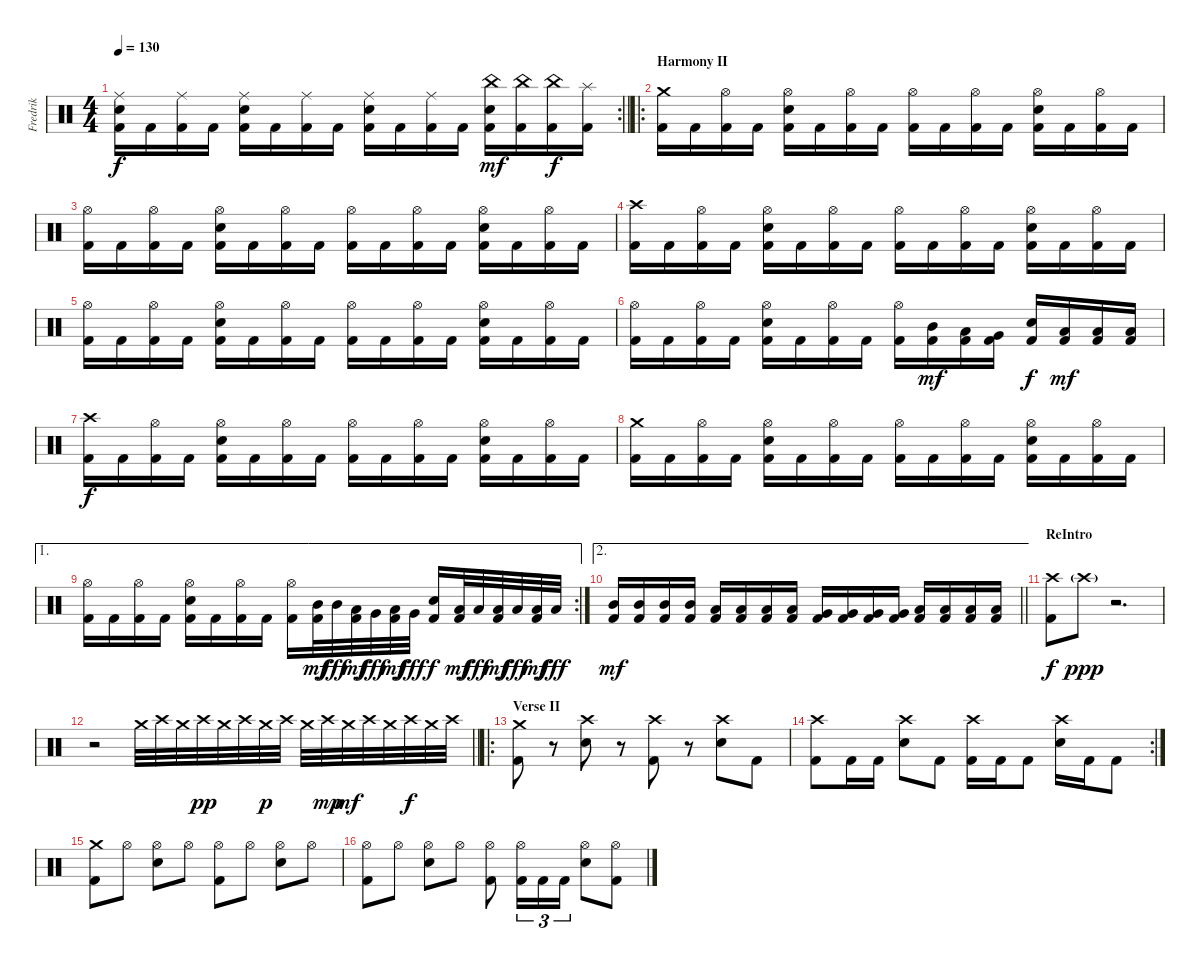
\track ("Fredrik" "Fredrik") {instrument percussion}
\staff {score}
\articulation defaults
\rc 2
\ts (4 4)
\tempo 130
\clef neutral
\barLineRight lightlight
\ks c
("Ride (middle)" "Electric Snare (hit)" "Kick (hit) 2").16{dy f} "Kick (hit) 2".16 ("Ride (middle)" "Kick (hit) 2").16 "Kick (hit) 2".16 ("Ride (middle)" "Electric Snare (hit)" "Kick (hit) 2").16 "Kick (hit) 2".16 ("Ride (middle)" "Kick (hit) 2").16 "Kick (hit) 2".16 ("Ride (middle)" "Electric Snare (hit)" "Kick (hit) 2").16 "Kick (hit) 2".16 ("Ride (middle)" "Kick (hit) 2").16 "Kick (hit) 2".16 ("China (hit)" "Electric Snare (hit)" "Kick (hit) 2").16{dy mf} ("China (hit)" "Kick (hit) 2").16 ("China (hit)" "Kick (hit) 2").16{dy f} ("Splash (hit)" "Kick (hit) 2").16 |
\ro
\section ("" "Harmony II")
("Crash medium (hit)" "Kick (hit) 2").16 "Kick (hit) 2".16 ("Hi-Hat (open)" "Kick (hit) 2").16 "Kick (hit) 2".16 ("Hi-Hat (open)" "Electric Snare (hit)" "Kick (hit) 2").16 "Kick (hit) 2".16 ("Hi-Hat (open)" "Kick (hit) 2").16 "Kick (hit) 2".16 ("Hi-Hat (open)" "Kick (hit) 2").16 "Kick (hit) 2".16 ("Hi-Hat (open)" "Kick (hit) 2").16 "Kick (hit) 2".16 ("Hi-Hat (open)" "Electric Snare (hit)" "Kick (hit) 2").16 "Kick (hit) 2".16 ("Hi-Hat (open)" "Kick (hit) 2").16 "Kick (hit) 2".16 |
("Hi-Hat (open)" "Kick (hit) 2").16 "Kick (hit) 2".16 ("Hi-Hat (open)" "Kick (hit) 2").16 "Kick (hit) 2".16 ("Hi-Hat (open)" "Electric Snare (hit)" "Kick (hit) 2").16 "Kick (hit) 2".16 ("Hi-Hat (open)" "Kick (hit) 2").16 "Kick (hit) 2".16 ("Hi-Hat (open)" "Kick (hit) 2").16 "Kick (hit) 2".16 ("Hi-Hat (open)" "Kick (hit) 2").16 "Kick (hit) 2".16 ("Hi-Hat (open)" "Electric Snare (hit)" "Kick (hit) 2").16 "Kick (hit) 2".16 ("Hi-Hat (open)" "Kick (hit) 2").16 "Kick (hit) 2".16 |
("Crash high (hit)" "Kick (hit) 2").16 "Kick (hit) 2".16 ("Hi-Hat (open)" "Kick (hit) 2").16 "Kick (hit) 2".16 ("Hi-Hat (open)" "Electric Snare (hit)" "Kick (hit) 2").16 "Kick (hit) 2".16 ("Hi-Hat (open)" "Kick (hit) 2").16 "Kick (hit) 2".16 ("Hi-Hat (open)" "Kick (hit) 2").16 "Kick (hit) 2".16 ("Hi-Hat (open)" "Kick (hit) 2").16 "Kick (hit) 2".16 ("Hi-Hat (open)" "Electric Snare (hit)" "Kick (hit) 2").16 "Kick (hit) 2".16 ("Hi-Hat (open)" "Kick (hit) 2").16 "Kick (hit) 2".16 |
("Hi-Hat (open)" "Kick (hit) 2").16 "Kick (hit) 2".16 ("Hi-Hat (open)" "Kick (hit) 2").16 "Kick (hit) 2".16 ("Hi-Hat (open)" "Electric Snare (hit)" "Kick (hit) 2").16 "Kick (hit) 2".16 ("Hi-Hat (open)" "Kick (hit) 2").16 "Kick (hit) 2".16 ("Hi-Hat (open)" "Kick (hit) 2").16 "Kick (hit) 2".16 ("Hi-Hat (open)" "Kick (hit) 2").16 "Kick (hit) 2".16 ("Hi-Hat (open)" "Electric Snare (hit)" "Kick (hit) 2").16 "Kick (hit) 2".16 ("Hi-Hat (open)" "Kick (hit) 2").16 "Kick (hit) 2".16 |
("Hi-Hat (open)" "Kick (hit) 2").16 "Kick (hit) 2".16 ("Hi-Hat (open)" "Kick (hit) 2").16 "Kick (hit) 2".16 ("Hi-Hat (open)" "Electric Snare (hit)" "Kick (hit) 2").16 "Kick (hit) 2".16 ("Hi-Hat (open)" "Kick (hit) 2").16 "Kick (hit) 2".16 ("Hi-Hat (open)" "Kick (hit) 2").16 ("Mid Tom (hit)" "Kick (hit) 2").16{dy mf} ("Low Tom (hit)" "Kick (hit) 2").16 ("Very Low Tom (hit)" "Kick (hit) 2").16 ("Electric Snare (hit)" "Kick (hit) 2").16{dy f} ("Low Floor Tom (hit)" "Kick (hit) 2").16{dy mf} ("Low Floor Tom (hit)" "Kick (hit) 2").16 ("Low Floor Tom (hit)" "Kick (hit) 2").16 |
("Crash high (hit)" "Kick (hit) 2").16{dy f} "Kick (hit) 2".16 ("Hi-Hat (open)" "Kick (hit) 2").16 "Kick (hit) 2".16 ("Hi-Hat (open)" "Electric Snare (hit)" "Kick (hit) 2").16 "Kick (hit) 2".16 ("Hi-Hat (open)" "Kick (hit) 2").16 "Kick (hit) 2".16 ("Hi-Hat (open)" "Kick (hit) 2").16 "Kick (hit) 2".16 ("Hi-Hat (open)" "Kick (hit) 2").16 "Kick (hit) 2".16 ("Hi-Hat (open)" "Electric Snare (hit)" "Kick (hit) 2").16 "Kick (hit) 2".16 ("Hi-Hat (open)" "Kick (hit) 2").16 "Kick (hit) 2".16 |
("Crash medium (hit)" "Kick (hit) 2").16 "Kick (hit) 2".16 ("Hi-Hat (open)" "Kick (hit) 2").16 "Kick (hit) 2".16 ("Hi-Hat (open)" "Electric Snare (hit)" "Kick (hit) 2").16 "Kick (hit) 2".16 ("Hi-Hat (open)" "Kick (hit) 2").16 "Kick (hit) 2".16 ("Hi-Hat (open)" "Kick (hit) 2").16 "Kick (hit) 2".16 ("Hi-Hat (open)" "Kick (hit) 2").16 "Kick (hit) 2".16 ("Hi-Hat (open)" "Electric Snare (hit)" "Kick (hit) 2").16 "Kick (hit) 2".16 ("Hi-Hat (open)" "Kick (hit) 2").16 "Kick (hit) 2".16 |
\ae 1
\rc 2
("Hi-Hat (open)" "Kick (hit) 2").16 "Kick (hit) 2".16 ("Hi-Hat (open)" "Kick (hit) 2").16 "Kick (hit) 2".16 ("Hi-Hat (open)" "Electric Snare (hit)" "Kick (hit) 2").16 "Kick (hit) 2".16 ("Hi-Hat (open)" "Kick (hit) 2").16 "Kick (hit) 2".16 ("Hi-Hat (open)" "Kick (hit) 2").16 ("Mid Tom (hit)" "Kick (hit) 2").32{dy mf} "Mid Tom (hit)".32{dy fff} ("Low Tom (hit)" "Kick (hit) 2").32{dy mf} "Very Low Tom (hit)".32{dy fff} ("Low Tom (hit)" "Kick (hit) 2").32{dy mf} "Very Low Tom (hit)".32{dy fff} ("Electric Snare (hit)" "Kick (hit) 2").16{dy f} ("Low Floor Tom (hit)" "Kick (hit) 2").32{dy mf} "Low Floor Tom (hit)".32{dy fff} ("Low Floor Tom (hit)" "Kick (hit) 2").32{dy mf} "Low Floor Tom (hit)".32{dy fff} ("Low Floor Tom (hit)" "Kick (hit) 2").32{dy mf} "Low Floor Tom (hit)".32{dy fff} |
\ae 2
\barLineRight lightlight
("Mid Tom (hit)" "Kick (hit) 2").16{dy mf} ("Mid Tom (hit)" "Kick (hit) 2").16 ("Mid Tom (hit)" "Kick (hit) 2").16 ("Mid Tom (hit)" "Kick (hit) 2").16 ("Low Tom (hit)" "Kick (hit) 2").16 ("Low Tom (hit)" "Kick (hit) 2").16 ("Low Tom (hit)" "Kick (hit) 2").16 ("Low Tom (hit)" "Kick (hit) 2").16 ("Very Low Tom (hit)" "Kick (hit) 2").16 ("Very Low Tom (hit)" "Kick (hit) 2").16 ("Very Low Tom (hit)" "Kick (hit) 2").16 ("Very Low Tom (hit)" "Kick (hit) 2").16 ("Low Floor Tom (hit)" "Kick (hit) 2").16 ("Low Floor Tom (hit)" "Kick (hit) 2").16 ("Low Floor Tom (hit)" "Kick (hit) 2").16 ("Low Floor Tom (hit)" "Kick (hit) 2").16 |
\section ("" "ReIntro")
("Crash high (hit)" "Kick (hit) 2").8{dy f} "Crash high (hit)"{g}.8{dy ppp} r.2{d} |
\barLineRight lightlight
r.2 "Crash medium (hit)".32 "Crash high (hit)".32 "Crash medium (hit)".32 "Crash high (hit)".32{dy pp} "Crash medium (hit)".32 "Crash high (hit)".32 "Crash medium (hit)".32{dy p} "Crash high (hit)".32 "Crash medium (hit)".32 "Crash high (hit)".32{dy mp} "Crash medium (hit)".32{dy mf} "Crash high (hit)".32 "Crash medium (hit)".32 "Crash high (hit)".32{dy f} "Crash medium (hit)".32 "Crash high (hit)".32 |
\ro
\section ("" "Verse II")
("Crash medium (hit)" "Kick (hit) 2").8 r.8 ("Crash high (hit)" "Electric Snare (hit)").8 r.8 ("Crash high (hit)" "Kick (hit) 2").8 r.8 ("Crash high (hit)" "Electric Snare (hit)").8 "Kick (hit) 2".8 |
\rc 2
("Crash high (hit)" "Kick (hit) 2").8 "Kick (hit) 2".16 "Kick (hit) 2".16 ("Crash high (hit)" "Electric Snare (hit)").8 "Kick (hit) 2".8 ("Crash high (hit)" "Kick (hit) 2").16 "Kick (hit) 2".16 "Kick (hit) 2".8 ("Crash high (hit)" "Electric Snare (hit)").16 "Kick (hit) 2".16 "Kick (hit) 2".8 |
("Crash medium (hit)" "Kick (hit) 2").8 "Hi-Hat (open)".8 ("Hi-Hat (open)" "Electric Snare (hit)").8 "Hi-Hat (open)".8 ("Hi-Hat (open)" "Kick (hit) 2").8 "Hi-Hat (open)".8 ("Hi-Hat (open)" "Electric Snare (hit)").8 "Hi-Hat (open)".8 |
("Hi-Hat (open)" "Kick (hit) 2").8 "Hi-Hat (open)".8 ("Hi-Hat (open)" "Electric Snare (hit)").8 "Hi-Hat (open)".8 ("Hi-Hat (open)" "Kick (hit) 2").8 ("Hi-Hat (open)" "Kick (hit) 2").16{tu (3 2)} "Kick (hit) 2".16{tu (3 2)} "Kick (hit) 2".16{tu (3 2)} ("Hi-Hat (open)" "Electric Snare (hit)").8 ("Hi-Hat (open)" "Kick (hit) 2").8
